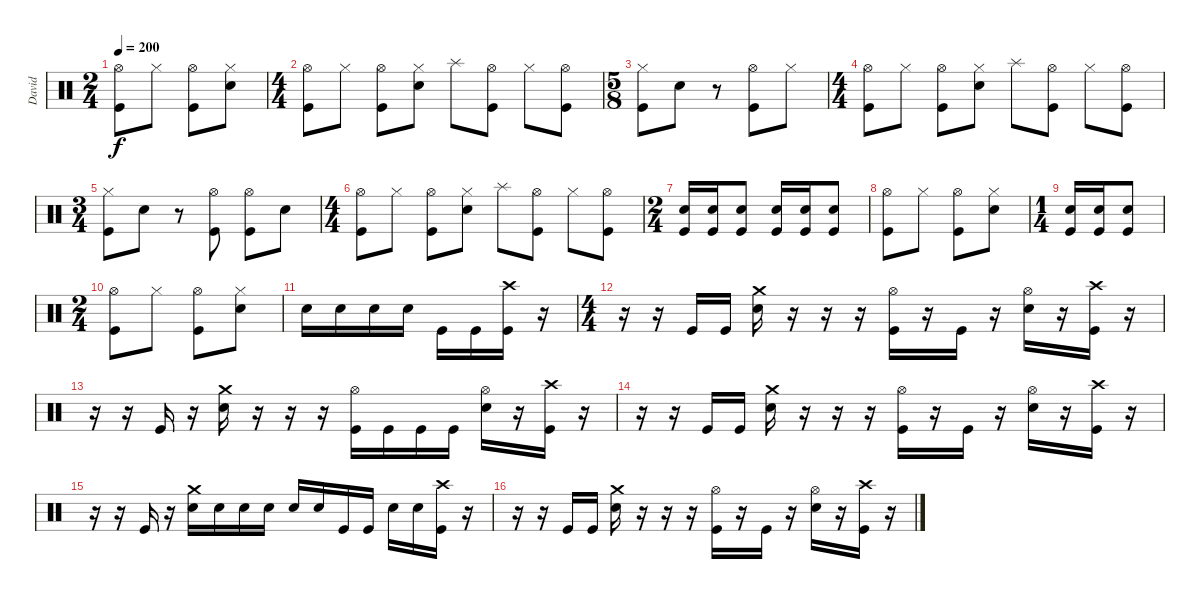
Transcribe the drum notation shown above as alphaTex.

\track ("David" "David") {instrument percussion}
\staff {score}
\articulation defaults
\ts (2 4)
\tempo 200
\clef neutral
\ks c
("Hi-Hat (open)" "Kick (hit)").8{dy f} "Hi-Hat (closed)".8 ("Hi-Hat (open)" "Kick (hit)").8 ("Hi-Hat (closed)" "Electric Snare (hit)").8 |
\ts (4 4)
("Hi-Hat (open)" "Kick (hit)").8 "Hi-Hat (closed)".8 ("Hi-Hat (open)" "Kick (hit)").8 ("Hi-Hat (closed)" "Electric Snare (hit)").8 "Splash (hit)".8 ("Hi-Hat (open)" "Kick (hit)").8 "Hi-Hat (closed)".8 ("Hi-Hat (open)" "Kick (hit)").8 |
\ts (5 8)
("Hi-Hat (closed)" "Kick (hit)").8 "Electric Snare (hit)".8 r.8 ("Hi-Hat (open)" "Kick (hit)").8 "Hi-Hat (closed)".8 |
\ts (4 4)
("Hi-Hat (open)" "Kick (hit)").8 "Hi-Hat (closed)".8 ("Hi-Hat (open)" "Kick (hit)").8 ("Hi-Hat (closed)" "Electric Snare (hit)").8 "Splash (hit)".8 ("Hi-Hat (open)" "Kick (hit)").8 "Hi-Hat (closed)".8 ("Hi-Hat (open)" "Kick (hit)").8 |
\ts (3 4)
("Hi-Hat (closed)" "Kick (hit)").8 "Electric Snare (hit)".8 r.8 ("Hi-Hat (open)" "Kick (hit)").8 ("Hi-Hat (open)" "Kick (hit)").8 "Electric Snare (hit)".8 |
\ts (4 4)
("Hi-Hat (open)" "Kick (hit)").8 "Hi-Hat (closed)".8 ("Hi-Hat (open)" "Kick (hit)").8 ("Hi-Hat (closed)" "Electric Snare (hit)").8 "Splash (hit)".8 ("Hi-Hat (open)" "Kick (hit)").8 "Hi-Hat (closed)".8 ("Hi-Hat (open)" "Kick (hit)").8 |
\ts (2 4)
("Electric Snare (hit)" "Kick (hit)").16 ("Electric Snare (hit)" "Kick (hit)").16 ("Electric Snare (hit)" "Kick (hit)").8 ("Electric Snare (hit)" "Kick (hit)").16 ("Electric Snare (hit)" "Kick (hit)").16 ("Electric Snare (hit)" "Kick (hit)").8 |
("Hi-Hat (open)" "Kick (hit)").8 "Hi-Hat (closed)".8 ("Hi-Hat (open)" "Kick (hit)").8 ("Hi-Hat (closed)" "Electric Snare (hit)").8 |
\ts (1 4)
("Electric Snare (hit)" "Kick (hit)").16 ("Electric Snare (hit)" "Kick (hit)").16 ("Electric Snare (hit)" "Kick (hit)").8 |
\ts (2 4)
("Hi-Hat (open)" "Kick (hit)").8 "Hi-Hat (closed)".8 ("Hi-Hat (open)" "Kick (hit)").8 ("Hi-Hat (closed)" "Electric Snare (hit)").8 |
"Electric Snare (hit)".16 "Electric Snare (hit)".16 "Electric Snare (hit)".16 "Electric Snare (hit)".16 "Kick (hit)".16 "Kick (hit)".16 ("Crash high (hit)" "Kick (hit)").16 r.16 |
\ts (4 4)
r.16 r.16 "Kick (hit)".16 "Kick (hit)".16 ("Crash medium (hit)" "Electric Snare (hit)").16 r.16 r.16 r.16 ("Hi-Hat (open)" "Kick (hit)").16 r.16 "Kick (hit)".16 r.16 ("Hi-Hat (open)" "Electric Snare (hit)").16 r.16 ("Crash high (hit)" "Kick (hit)").16 r.16 |
r.16 r.16 "Kick (hit)".16 r.16 ("Crash medium (hit)" "Electric Snare (hit)").16 r.16 r.16 r.16 ("Hi-Hat (open)" "Kick (hit)").16 "Kick (hit)".16 "Kick (hit)".16 "Kick (hit)".16 ("Hi-Hat (open)" "Electric Snare (hit)").16 r.16 ("Crash high (hit)" "Kick (hit)").16 r.16 |
r.16 r.16 "Kick (hit)".16 "Kick (hit)".16 ("Crash medium (hit)" "Electric Snare (hit)").16 r.16 r.16 r.16 ("Hi-Hat (open)" "Kick (hit)").16 r.16 "Kick (hit)".16 r.16 ("Hi-Hat (open)" "Electric Snare (hit)").16 r.16 ("Crash high (hit)" "Kick (hit)").16 r.16 |
r.16 r.16 "Kick (hit)".16 r.16 ("Crash medium (hit)" "Electric Snare (hit)").16 "Electric Snare (hit)".16 "Electric Snare (hit)".16 "Electric Snare (hit)".16 "Electric Snare (hit)".16 "Electric Snare (hit)".16 "Kick (hit)".16 "Kick (hit)".16 "Electric Snare (hit)".16 "Electric Snare (hit)".16 ("Crash high (hit)" "Kick (hit)").16 r.16 |
r.16 r.16 "Kick (hit)".16 "Kick (hit)".16 ("Crash medium (hit)" "Electric Snare (hit)").16 r.16 r.16 r.16 ("Hi-Hat (open)" "Kick (hit)").16 r.16 "Kick (hit)".16 r.16 ("Hi-Hat (open)" "Electric Snare (hit)").16 r.16 ("Crash high (hit)" "Kick (hit)").16 r.16
